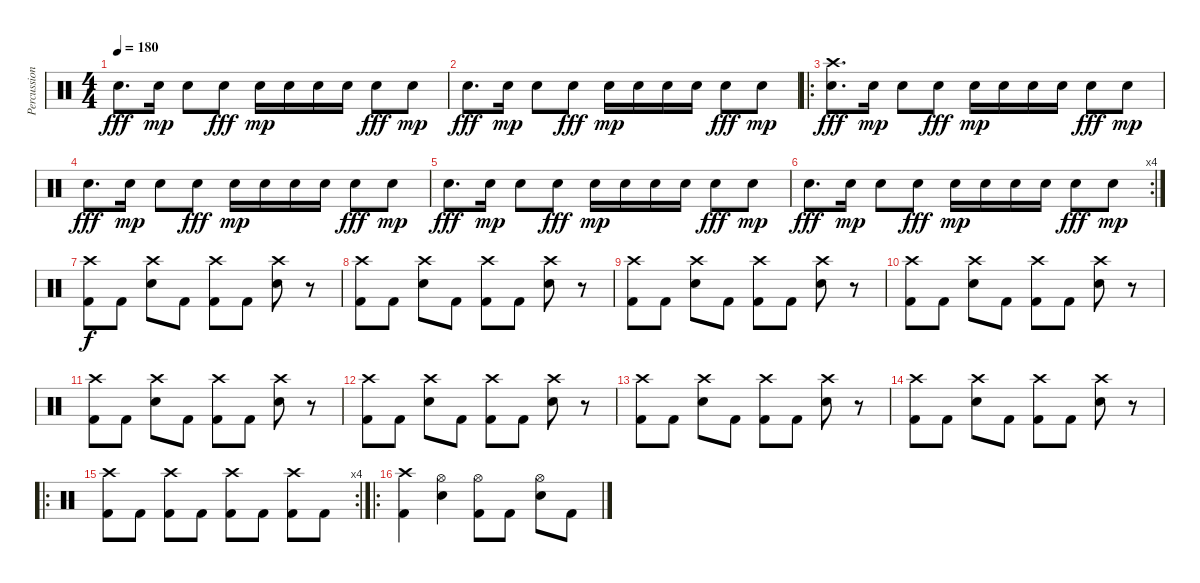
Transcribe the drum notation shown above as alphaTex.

\track ("Percussion" "Percussion") {instrument percussion}
\staff {score}
\articulation defaults
\ts (4 4)
\tempo 180
\clef neutral
\ks c "Electric Snare (hit)".8{d dy fff} "Electric Snare (hit)".16{dy mp} "Electric Snare (hit)".8 "Electric Snare (hit)".8{dy fff} "Electric Snare (hit)".16{dy mp} "Electric Snare (hit)".16 "Electric Snare (hit)".16 "Electric Snare (hit)".16 "Electric Snare (hit)".8{dy fff} "Electric Snare (hit)".8{dy mp}
|
"Electric Snare (hit)".8{d dy fff} "Electric Snare (hit)".16{dy mp} "Electric Snare (hit)".8 "Electric Snare (hit)".8{dy fff} "Electric Snare (hit)".16{dy mp} "Electric Snare (hit)".16 "Electric Snare (hit)".16 "Electric Snare (hit)".16 "Electric Snare (hit)".8{dy fff} "Electric Snare (hit)".8{dy mp} |
\ro
("Crash high (hit)" "Electric Snare (hit)").8{d dy fff} "Electric Snare (hit)".16{dy mp} "Electric Snare (hit)".8 "Electric Snare (hit)".8{dy fff} "Electric Snare (hit)".16{dy mp} "Electric Snare (hit)".16 "Electric Snare (hit)".16 "Electric Snare (hit)".16 "Electric Snare (hit)".8{dy fff} "Electric Snare (hit)".8{dy mp} |
"Electric Snare (hit)".8{d dy fff} "Electric Snare (hit)".16{dy mp} "Electric Snare (hit)".8 "Electric Snare (hit)".8{dy fff} "Electric Snare (hit)".16{dy mp} "Electric Snare (hit)".16 "Electric Snare (hit)".16 "Electric Snare (hit)".16 "Electric Snare (hit)".8{dy fff} "Electric Snare (hit)".8{dy mp} |
"Electric Snare (hit)".8{d dy fff} "Electric Snare (hit)".16{dy mp} "Electric Snare (hit)".8 "Electric Snare (hit)".8{dy fff} "Electric Snare (hit)".16{dy mp} "Electric Snare (hit)".16 "Electric Snare (hit)".16 "Electric Snare (hit)".16 "Electric Snare (hit)".8{dy fff} "Electric Snare (hit)".8{dy mp} |
\rc 4 "Electric Snare (hit)".8{d dy fff} "Electric Snare (hit)".16{dy mp} "Electric Snare (hit)".8 "Electric Snare (hit)".8{dy fff} "Electric Snare (hit)".16{dy mp} "Electric Snare (hit)".16 "Electric Snare (hit)".16 "Electric Snare (hit)".16 "Electric Snare (hit)".8{dy fff} "Electric Snare (hit)".8{dy mp}
|
("Crash high (hit)" "Kick (hit) 2").8{dy f} "Kick (hit) 2".8 ("Crash high (hit)" "Electric Snare (hit)").8 "Kick (hit) 2".8 ("Crash high (hit)" "Kick (hit) 2").8 "Kick (hit) 2".8 ("Crash high (hit)" "Electric Snare (hit)").8 r.8 |
("Crash high (hit)" "Kick (hit) 2").8 "Kick (hit) 2".8 ("Crash high (hit)" "Electric Snare (hit)").8 "Kick (hit) 2".8 ("Crash high (hit)" "Kick (hit) 2").8 "Kick (hit) 2".8 ("Crash high (hit)" "Electric Snare (hit)").8 r.8 |
("Crash high (hit)" "Kick (hit) 2").8 "Kick (hit) 2".8 ("Crash high (hit)" "Electric Snare (hit)").8 "Kick (hit) 2".8 ("Crash high (hit)" "Kick (hit) 2").8 "Kick (hit) 2".8 ("Crash high (hit)" "Electric Snare (hit)").8 r.8 |
("Crash high (hit)" "Kick (hit) 2").8 "Kick (hit) 2".8 ("Crash high (hit)" "Electric Snare (hit)").8 "Kick (hit) 2".8 ("Crash high (hit)" "Kick (hit) 2").8 "Kick (hit) 2".8 ("Crash high (hit)" "Electric Snare (hit)").8 r.8 |
("Crash high (hit)" "Kick (hit) 2").8 "Kick (hit) 2".8 ("Crash high (hit)" "Electric Snare (hit)").8 "Kick (hit) 2".8 ("Crash high (hit)" "Kick (hit) 2").8 "Kick (hit) 2".8 ("Crash high (hit)" "Electric Snare (hit)").8 r.8 |
("Crash high (hit)" "Kick (hit) 2").8 "Kick (hit) 2".8 ("Crash high (hit)" "Electric Snare (hit)").8 "Kick (hit) 2".8 ("Crash high (hit)" "Kick (hit) 2").8 "Kick (hit) 2".8 ("Crash high (hit)" "Electric Snare (hit)").8 r.8 |
("Crash high (hit)" "Kick (hit) 2").8 "Kick (hit) 2".8 ("Crash high (hit)" "Electric Snare (hit)").8 "Kick (hit) 2".8 ("Crash high (hit)" "Kick (hit) 2").8 "Kick (hit) 2".8 ("Crash high (hit)" "Electric Snare (hit)").8 r.8 |
("Crash high (hit)" "Kick (hit) 2").8 "Kick (hit) 2".8 ("Crash high (hit)" "Electric Snare (hit)").8 "Kick (hit) 2".8 ("Crash high (hit)" "Kick (hit) 2").8 "Kick (hit) 2".8 ("Crash high (hit)" "Electric Snare (hit)").8 r.8 |
\ro
\rc 4
("Crash high (hit)" "Kick (hit) 2").8{volume 9} "Kick (hit) 2".8{volume 11} ("Crash high (hit)" "Kick (hit) 2").8 "Kick (hit) 2".8 ("Crash high (hit)" "Kick (hit) 2").8 "Kick (hit) 2".8 ("Crash high (hit)" "Kick (hit) 2").8 "Kick (hit) 2".8 |
\ro
("Crash high (hit)" "Kick (hit) 2").4 ("Hi-Hat (open)" "Electric Snare (hit)").4 ("Hi-Hat (open)" "Kick (hit) 2").8 "Kick (hit) 2".8 ("Hi-Hat (open)" "Electric Snare (hit)").8 "Kick (hit) 2".8
